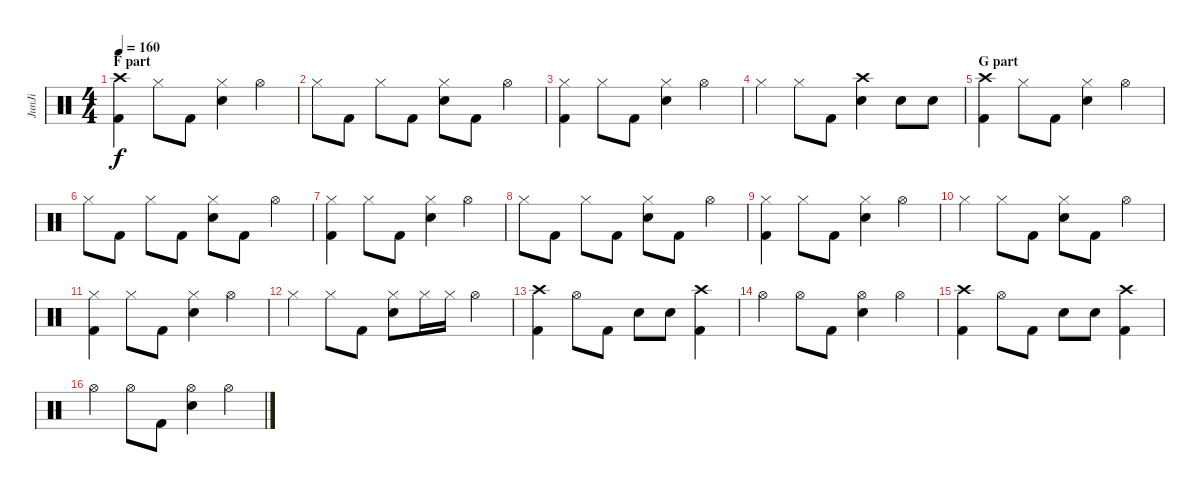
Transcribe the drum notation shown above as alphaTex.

\track ("JunJi" "JunJi") {instrument percussion}
\staff {score}
\articulation defaults
\ts (4 4)
\section ("" "F part")
\tempo 160
\clef neutral
\ks c
("Crash high (hit)" "Kick (hit) 2").4{dy f} "Hi-Hat (closed)".8 "Kick (hit) 2".8 ("Hi-Hat (closed)" "Snare (hit) 2").4 "Hi-Hat (open)".4 |
"Hi-Hat (closed)".8 "Kick (hit) 2".8 "Hi-Hat (closed)".8 "Kick (hit) 2".8 ("Hi-Hat (closed)" "Snare (hit) 2").8 "Kick (hit) 2".8 "Hi-Hat (open)".4 |
("Hi-Hat (closed)" "Kick (hit) 2").4 "Hi-Hat (closed)".8 "Kick (hit) 2".8 ("Hi-Hat (closed)" "Snare (hit) 2").4 "Hi-Hat (open)".4 |
"Hi-Hat (closed)".4 "Hi-Hat (closed)".8 "Kick (hit) 2".8 ("Crash high (hit)" "Snare (hit) 2").4 "Snare (hit) 2".8 "Snare (hit) 2".8 |
\section ("" "G part")
("Crash high (hit)" "Kick (hit) 2").4 "Hi-Hat (closed)".8 "Kick (hit) 2".8 ("Hi-Hat (closed)" "Snare (hit) 2").4 "Hi-Hat (open)".4 |
"Hi-Hat (closed)".8 "Kick (hit) 2".8 "Hi-Hat (closed)".8 "Kick (hit) 2".8 ("Hi-Hat (closed)" "Snare (hit) 2").8 "Kick (hit) 2".8 "Hi-Hat (open)".4 |
("Hi-Hat (closed)" "Kick (hit) 2").4 "Hi-Hat (closed)".8 "Kick (hit) 2".8 ("Hi-Hat (closed)" "Snare (hit) 2").4 "Hi-Hat (open)".4 |
"Hi-Hat (closed)".8 "Kick (hit) 2".8 "Hi-Hat (closed)".8 "Kick (hit) 2".8 ("Hi-Hat (closed)" "Snare (hit) 2").8 "Kick (hit) 2".8 "Hi-Hat (open)".4 |
("Hi-Hat (closed)" "Kick (hit) 2").4 "Hi-Hat (closed)".8 "Kick (hit) 2".8 ("Hi-Hat (closed)" "Snare (hit) 2").4 "Hi-Hat (open)".4 |
"Hi-Hat (closed)".4 "Hi-Hat (closed)".8 "Kick (hit) 2".8 ("Hi-Hat (closed)" "Snare (hit) 2").8 "Kick (hit) 2".8 "Hi-Hat (open)".4 |
("Hi-Hat (closed)" "Kick (hit) 2").4 "Hi-Hat (closed)".8 "Kick (hit) 2".8 ("Hi-Hat (closed)" "Snare (hit) 2").4 "Hi-Hat (open)".4 |
"Hi-Hat (closed)".4 "Hi-Hat (closed)".8 "Kick (hit) 2".8 ("Hi-Hat (closed)" "Snare (hit) 2").8 "Hi-Hat (closed)".16 "Hi-Hat (closed)".16 "Hi-Hat (open)".4 |
("Crash high (hit)" "Kick (hit) 2").4 "Hi-Hat (open)".8 "Kick (hit) 2".8 "Snare (hit) 2".8 "Snare (hit) 2".8 ("Crash high (hit)" "Kick (hit) 2").4 |
"Hi-Hat (open)".4 "Hi-Hat (open)".8 "Kick (hit) 2".8 ("Hi-Hat (open)" "Snare (hit) 2").4 "Hi-Hat (open)".4 |
("Crash high (hit)" "Kick (hit) 2").4 "Hi-Hat (open)".8 "Kick (hit) 2".8 "Snare (hit) 2".8 "Snare (hit) 2".8 ("Crash high (hit)" "Kick (hit) 2").4 |
"Hi-Hat (open)".4 "Hi-Hat (open)".8 "Kick (hit) 2".8 ("Hi-Hat (open)" "Snare (hit) 2").4 "Hi-Hat (open)".4
